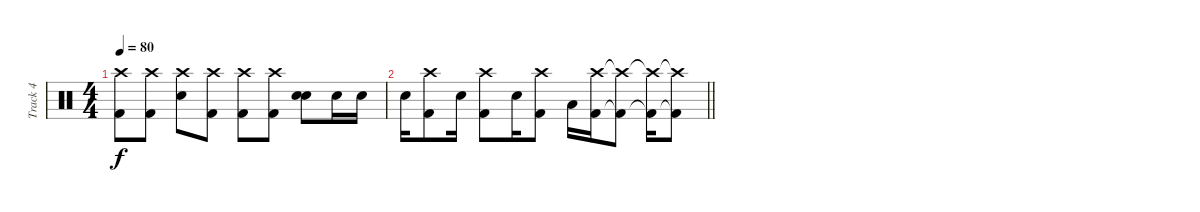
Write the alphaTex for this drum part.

\track ("Track 4" "Track 4") {instrument percussion}
\staff {score}
\articulation defaults
\ts (4 4)
\tempo 80
\clef neutral
\ks c
("Crash high (hit)" "Kick (hit) 2").8{dy f} ("Crash high (hit)" "Kick (hit) 2").8 ("Crash high (hit)" "Snare (hit) 2").8 ("Crash high (hit)" "Kick (hit) 2").8 ("Crash high (hit)" "Kick (hit) 2").8 ("Crash high (hit)" "Kick (hit) 2").8 ("Electric Snare (hit)" "Snare (hit) 2").8 "Snare (hit) 2".16 "Snare (hit) 2".16 |
\barLineRight lightlight "Snare (hit) 2".16
("Crash high (hit)" "Kick (hit) 2").8 "Snare (hit) 2".16 ("Crash high (hit)" "Kick (hit) 2").8 "Snare (hit) 2".16 ("Crash high (hit)" "Kick (hit) 2").8 "Low Floor Tom (hit)".16 ("Crash high (hit)" "Kick (hit) 2").16 ("Crash high (hit)"{t} "Kick (hit) 2"{t}).8 ("Crash high (hit)"{t} "Kick (hit) 2"{t}).16 ("Crash high (hit)"{t} "Kick (hit) 2"{t}).8
